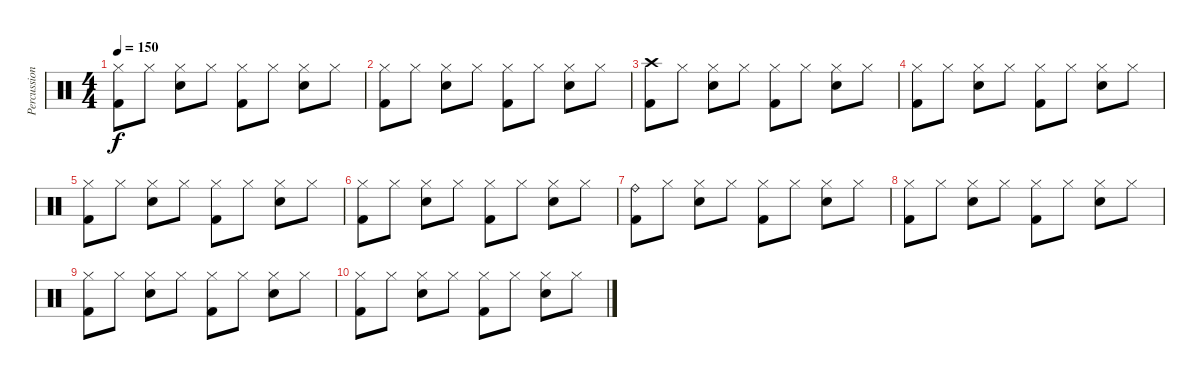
\track ("Percussion" "Percussion") {instrument percussion}
\staff {score}
\articulation defaults
\ts (4 4)
\tempo 150
\clef neutral
\ks c
("Hi-Hat (closed)" "Kick (hit) 2").8{dy f} "Hi-Hat (closed)".8 ("Hi-Hat (closed)" "Electric Snare (hit)").8 "Hi-Hat (closed)".8 ("Hi-Hat (closed)" "Kick (hit) 2").8 "Hi-Hat (closed)".8 ("Hi-Hat (closed)" "Electric Snare (hit)").8 "Hi-Hat (closed)".8 |
("Hi-Hat (closed)" "Kick (hit) 2").8 "Hi-Hat (closed)".8 ("Hi-Hat (closed)" "Electric Snare (hit)").8 "Hi-Hat (closed)".8 ("Hi-Hat (closed)" "Kick (hit) 2").8 "Hi-Hat (closed)".8 ("Hi-Hat (closed)" "Electric Snare (hit)").8 "Hi-Hat (closed)".8 |
("Crash high (hit)" "Kick (hit) 2").8 "Hi-Hat (closed)".8 ("Hi-Hat (closed)" "Electric Snare (hit)").8 "Hi-Hat (closed)".8 ("Hi-Hat (closed)" "Kick (hit) 2").8 "Hi-Hat (closed)".8 ("Hi-Hat (closed)" "Electric Snare (hit)").8 "Hi-Hat (closed)".8 |
("Hi-Hat (closed)" "Kick (hit) 2").8 "Hi-Hat (closed)".8 ("Hi-Hat (closed)" "Electric Snare (hit)").8 "Hi-Hat (closed)".8 ("Hi-Hat (closed)" "Kick (hit) 2").8 "Hi-Hat (closed)".8 ("Hi-Hat (closed)" "Electric Snare (hit)").8 "Hi-Hat (closed)".8 |
("Hi-Hat (closed)" "Kick (hit) 2").8 "Hi-Hat (closed)".8 ("Hi-Hat (closed)" "Electric Snare (hit)").8 "Hi-Hat (closed)".8 ("Hi-Hat (closed)" "Kick (hit) 2").8 "Hi-Hat (closed)".8 ("Hi-Hat (closed)" "Electric Snare (hit)").8 "Hi-Hat (closed)".8 |
("Hi-Hat (closed)" "Kick (hit) 2").8 "Hi-Hat (closed)".8 ("Hi-Hat (closed)" "Electric Snare (hit)").8 "Hi-Hat (closed)".8 ("Hi-Hat (closed)" "Kick (hit) 2").8 "Hi-Hat (closed)".8 ("Hi-Hat (closed)" "Electric Snare (hit)").8 "Hi-Hat (closed)".8 |
("Ride (bell)" "Kick (hit) 2").8 "Hi-Hat (closed)".8 ("Hi-Hat (closed)" "Electric Snare (hit)").8 "Hi-Hat (closed)".8 ("Hi-Hat (closed)" "Kick (hit) 2").8 "Hi-Hat (closed)".8 ("Hi-Hat (closed)" "Electric Snare (hit)").8 "Hi-Hat (closed)".8 |
("Hi-Hat (closed)" "Kick (hit) 2").8 "Hi-Hat (closed)".8 ("Hi-Hat (closed)" "Electric Snare (hit)").8 "Hi-Hat (closed)".8 ("Hi-Hat (closed)" "Kick (hit) 2").8 "Hi-Hat (closed)".8 ("Hi-Hat (closed)" "Electric Snare (hit)").8 "Hi-Hat (closed)".8 |
("Hi-Hat (closed)" "Kick (hit) 2").8 "Hi-Hat (closed)".8 ("Hi-Hat (closed)" "Electric Snare (hit)").8 "Hi-Hat (closed)".8 ("Hi-Hat (closed)" "Kick (hit) 2").8 "Hi-Hat (closed)".8 ("Hi-Hat (closed)" "Electric Snare (hit)").8 "Hi-Hat (closed)".8 |
("Hi-Hat (closed)" "Kick (hit) 2").8 "Hi-Hat (closed)".8 ("Hi-Hat (closed)" "Electric Snare (hit)").8 "Hi-Hat (closed)".8 ("Hi-Hat (closed)" "Kick (hit) 2").8 "Hi-Hat (closed)".8 ("Hi-Hat (closed)" "Electric Snare (hit)").8 "Hi-Hat (closed)".8
